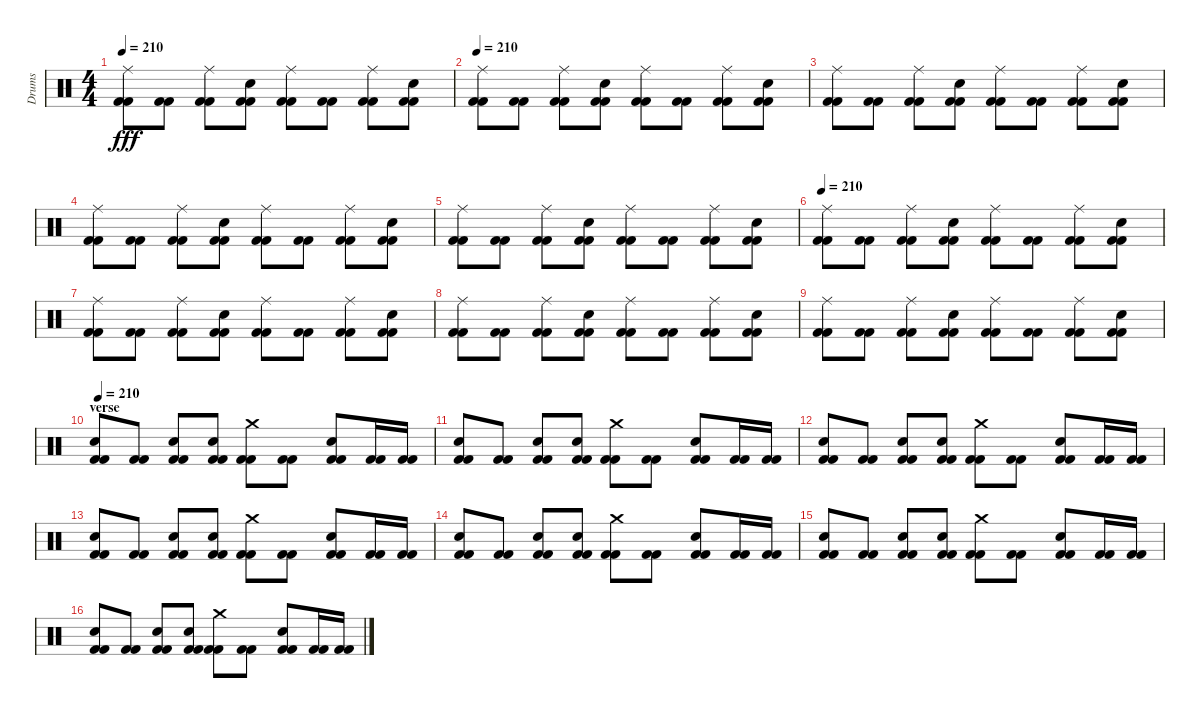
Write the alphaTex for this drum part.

\track ("Drums" "Drums") {instrument percussion}
\staff {score}
\articulation defaults
\ts (4 4)
\tempo 210
\clef neutral
\ks c
("Ride (middle)" "Kick (hit) 2" "Kick (hit) 2").8{dy fff} ("Kick (hit) 2" "Kick (hit) 2").8 ("Ride (middle)" "Kick (hit) 2" "Kick (hit) 2").8 ("Electric Snare (hit)" "Kick (hit) 2" "Kick (hit) 2").8 ("Ride (middle)" "Kick (hit) 2" "Kick (hit) 2").8 ("Kick (hit) 2" "Kick (hit) 2").8 ("Ride (middle)" "Kick (hit) 2" "Kick (hit) 2").8 ("Electric Snare (hit)" "Kick (hit) 2" "Kick (hit) 2").8 |
\tempo 210
("Ride (middle)" "Kick (hit) 2" "Kick (hit) 2").8 ("Kick (hit) 2" "Kick (hit) 2").8 ("Ride (middle)" "Kick (hit) 2" "Kick (hit) 2").8 ("Electric Snare (hit)" "Kick (hit) 2" "Kick (hit) 2").8 ("Ride (middle)" "Kick (hit) 2" "Kick (hit) 2").8 ("Kick (hit) 2" "Kick (hit) 2").8 ("Ride (middle)" "Kick (hit) 2" "Kick (hit) 2").8 ("Electric Snare (hit)" "Kick (hit) 2" "Kick (hit) 2").8 |
("Ride (middle)" "Kick (hit) 2" "Kick (hit) 2").8 ("Kick (hit) 2" "Kick (hit) 2").8 ("Ride (middle)" "Kick (hit) 2" "Kick (hit) 2").8 ("Electric Snare (hit)" "Kick (hit) 2" "Kick (hit) 2").8 ("Ride (middle)" "Kick (hit) 2" "Kick (hit) 2").8 ("Kick (hit) 2" "Kick (hit) 2").8 ("Ride (middle)" "Kick (hit) 2" "Kick (hit) 2").8 ("Electric Snare (hit)" "Kick (hit) 2" "Kick (hit) 2").8 |
("Ride (middle)" "Kick (hit) 2" "Kick (hit) 2").8 ("Kick (hit) 2" "Kick (hit) 2").8 ("Ride (middle)" "Kick (hit) 2" "Kick (hit) 2").8 ("Electric Snare (hit)" "Kick (hit) 2" "Kick (hit) 2").8 ("Ride (middle)" "Kick (hit) 2" "Kick (hit) 2").8 ("Kick (hit) 2" "Kick (hit) 2").8 ("Ride (middle)" "Kick (hit) 2" "Kick (hit) 2").8 ("Electric Snare (hit)" "Kick (hit) 2" "Kick (hit) 2").8 |
("Ride (middle)" "Kick (hit) 2" "Kick (hit) 2").8 ("Kick (hit) 2" "Kick (hit) 2").8 ("Ride (middle)" "Kick (hit) 2" "Kick (hit) 2").8 ("Electric Snare (hit)" "Kick (hit) 2" "Kick (hit) 2").8 ("Ride (middle)" "Kick (hit) 2" "Kick (hit) 2").8 ("Kick (hit) 2" "Kick (hit) 2").8 ("Ride (middle)" "Kick (hit) 2" "Kick (hit) 2").8 ("Electric Snare (hit)" "Kick (hit) 2" "Kick (hit) 2").8 |
\tempo 210
("Ride (middle)" "Kick (hit) 2" "Kick (hit) 2").8 ("Kick (hit) 2" "Kick (hit) 2").8 ("Ride (middle)" "Kick (hit) 2" "Kick (hit) 2").8 ("Electric Snare (hit)" "Kick (hit) 2" "Kick (hit) 2").8 ("Ride (middle)" "Kick (hit) 2" "Kick (hit) 2").8 ("Kick (hit) 2" "Kick (hit) 2").8 ("Ride (middle)" "Kick (hit) 2" "Kick (hit) 2").8 ("Electric Snare (hit)" "Kick (hit) 2" "Kick (hit) 2").8 |
("Ride (middle)" "Kick (hit) 2" "Kick (hit) 2").8 ("Kick (hit) 2" "Kick (hit) 2").8 ("Ride (middle)" "Kick (hit) 2" "Kick (hit) 2").8 ("Electric Snare (hit)" "Kick (hit) 2" "Kick (hit) 2").8 ("Ride (middle)" "Kick (hit) 2" "Kick (hit) 2").8 ("Kick (hit) 2" "Kick (hit) 2").8 ("Ride (middle)" "Kick (hit) 2" "Kick (hit) 2").8 ("Electric Snare (hit)" "Kick (hit) 2" "Kick (hit) 2").8 |
("Ride (middle)" "Kick (hit) 2" "Kick (hit) 2").8 ("Kick (hit) 2" "Kick (hit) 2").8 ("Ride (middle)" "Kick (hit) 2" "Kick (hit) 2").8 ("Electric Snare (hit)" "Kick (hit) 2" "Kick (hit) 2").8 ("Ride (middle)" "Kick (hit) 2" "Kick (hit) 2").8 ("Kick (hit) 2" "Kick (hit) 2").8 ("Ride (middle)" "Kick (hit) 2" "Kick (hit) 2").8 ("Electric Snare (hit)" "Kick (hit) 2" "Kick (hit) 2").8 |
("Ride (middle)" "Kick (hit) 2" "Kick (hit) 2").8 ("Kick (hit) 2" "Kick (hit) 2").8 ("Ride (middle)" "Kick (hit) 2" "Kick (hit) 2").8 ("Electric Snare (hit)" "Kick (hit) 2" "Kick (hit) 2").8 ("Ride (middle)" "Kick (hit) 2" "Kick (hit) 2").8 ("Kick (hit) 2" "Kick (hit) 2").8 ("Ride (middle)" "Kick (hit) 2" "Kick (hit) 2").8 ("Electric Snare (hit)" "Kick (hit) 2" "Kick (hit) 2").8 |
\section ("" "verse")
\tempo 210
("Electric Snare (hit)" "Kick (hit) 2" "Kick (hit) 2").8 ("Kick (hit) 2" "Kick (hit) 2").8 ("Electric Snare (hit)" "Kick (hit) 2" "Kick (hit) 2").8 ("Electric Snare (hit)" "Kick (hit) 2" "Kick (hit) 2").8 ("Crash medium (hit)" "Kick (hit) 2" "Kick (hit) 2").8 ("Kick (hit) 2" "Kick (hit) 2").8 ("Electric Snare (hit)" "Kick (hit) 2" "Kick (hit) 2").8 ("Kick (hit) 2" "Kick (hit) 2").16 ("Kick (hit) 2" "Kick (hit) 2").16 |
("Electric Snare (hit)" "Kick (hit) 2" "Kick (hit) 2").8 ("Kick (hit) 2" "Kick (hit) 2").8 ("Electric Snare (hit)" "Kick (hit) 2" "Kick (hit) 2").8 ("Electric Snare (hit)" "Kick (hit) 2" "Kick (hit) 2").8 ("Crash medium (hit)" "Kick (hit) 2" "Kick (hit) 2").8 ("Kick (hit) 2" "Kick (hit) 2").8 ("Electric Snare (hit)" "Kick (hit) 2" "Kick (hit) 2").8 ("Kick (hit) 2" "Kick (hit) 2").16 ("Kick (hit) 2" "Kick (hit) 2").16 |
("Electric Snare (hit)" "Kick (hit) 2" "Kick (hit) 2").8 ("Kick (hit) 2" "Kick (hit) 2").8 ("Electric Snare (hit)" "Kick (hit) 2" "Kick (hit) 2").8 ("Electric Snare (hit)" "Kick (hit) 2" "Kick (hit) 2").8 ("Crash medium (hit)" "Kick (hit) 2" "Kick (hit) 2").8 ("Kick (hit) 2" "Kick (hit) 2").8 ("Electric Snare (hit)" "Kick (hit) 2" "Kick (hit) 2").8 ("Kick (hit) 2" "Kick (hit) 2").16 ("Kick (hit) 2" "Kick (hit) 2").16 |
("Electric Snare (hit)" "Kick (hit) 2" "Kick (hit) 2").8 ("Kick (hit) 2" "Kick (hit) 2").8 ("Electric Snare (hit)" "Kick (hit) 2" "Kick (hit) 2").8 ("Electric Snare (hit)" "Kick (hit) 2" "Kick (hit) 2").8 ("Crash medium (hit)" "Kick (hit) 2" "Kick (hit) 2").8 ("Kick (hit) 2" "Kick (hit) 2").8 ("Electric Snare (hit)" "Kick (hit) 2" "Kick (hit) 2").8 ("Kick (hit) 2" "Kick (hit) 2").16 ("Kick (hit) 2" "Kick (hit) 2").16 |
("Electric Snare (hit)" "Kick (hit) 2" "Kick (hit) 2").8 ("Kick (hit) 2" "Kick (hit) 2").8 ("Electric Snare (hit)" "Kick (hit) 2" "Kick (hit) 2").8 ("Electric Snare (hit)" "Kick (hit) 2" "Kick (hit) 2").8 ("Crash medium (hit)" "Kick (hit) 2" "Kick (hit) 2").8 ("Kick (hit) 2" "Kick (hit) 2").8 ("Electric Snare (hit)" "Kick (hit) 2" "Kick (hit) 2").8 ("Kick (hit) 2" "Kick (hit) 2").16 ("Kick (hit) 2" "Kick (hit) 2").16 |
("Electric Snare (hit)" "Kick (hit) 2" "Kick (hit) 2").8 ("Kick (hit) 2" "Kick (hit) 2").8 ("Electric Snare (hit)" "Kick (hit) 2" "Kick (hit) 2").8 ("Electric Snare (hit)" "Kick (hit) 2" "Kick (hit) 2").8 ("Crash medium (hit)" "Kick (hit) 2" "Kick (hit) 2").8 ("Kick (hit) 2" "Kick (hit) 2").8 ("Electric Snare (hit)" "Kick (hit) 2" "Kick (hit) 2").8 ("Kick (hit) 2" "Kick (hit) 2").16 ("Kick (hit) 2" "Kick (hit) 2").16 |
("Electric Snare (hit)" "Kick (hit) 2" "Kick (hit) 2").8 ("Kick (hit) 2" "Kick (hit) 2").8 ("Electric Snare (hit)" "Kick (hit) 2" "Kick (hit) 2").8 ("Electric Snare (hit)" "Kick (hit) 2" "Kick (hit) 2").8 ("Crash medium (hit)" "Kick (hit) 2" "Kick (hit) 2").8 ("Kick (hit) 2" "Kick (hit) 2").8 ("Electric Snare (hit)" "Kick (hit) 2" "Kick (hit) 2").8 ("Kick (hit) 2" "Kick (hit) 2").16 ("Kick (hit) 2" "Kick (hit) 2").16
